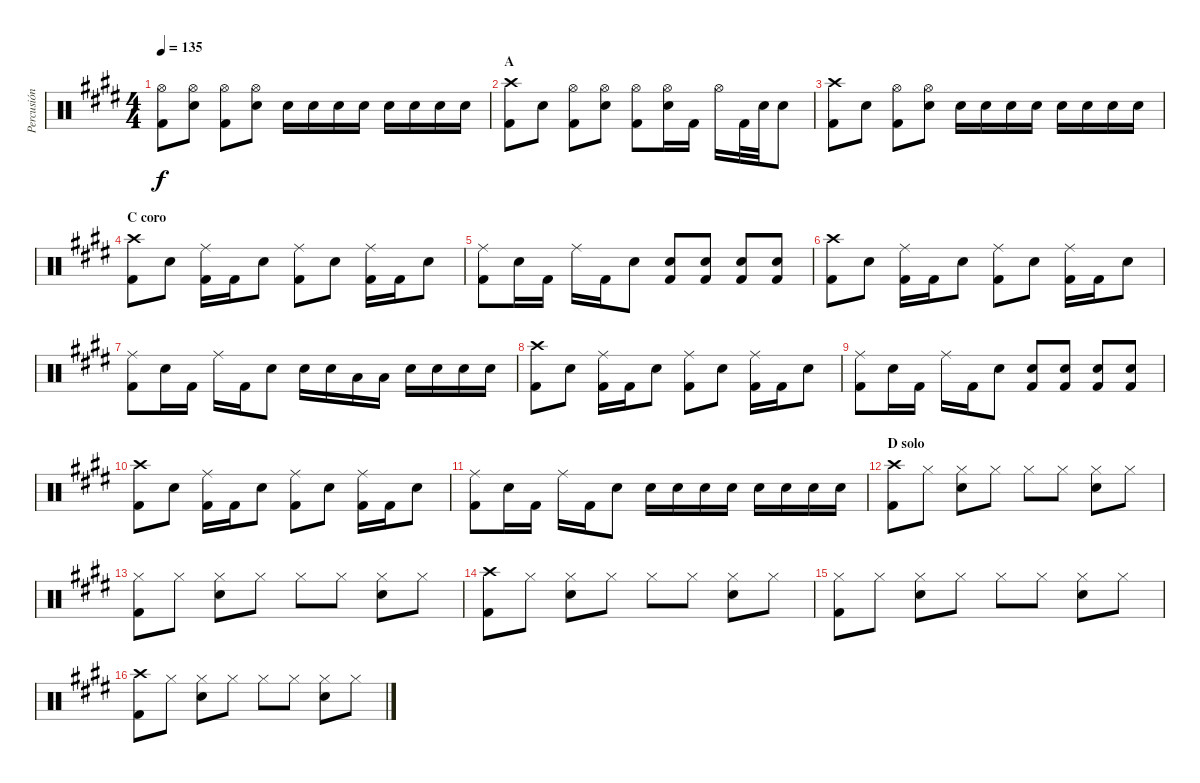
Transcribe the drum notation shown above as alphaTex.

\track ("Percusión" "Percusión") {instrument percussion}
\staff {score}
\articulation defaults
\ts (4 4)
\tempo 135
\clef neutral
\ks e
("Hi-Hat (open)" "Kick (hit) 2").8{dy f} ("Hi-Hat (open)" "Electric Snare (hit)").8 ("Hi-Hat (open)" "Kick (hit) 2").8 ("Hi-Hat (open)" "Electric Snare (hit)").8 "Electric Snare (hit)".16 "Electric Snare (hit)".16 "Electric Snare (hit)".16 "Electric Snare (hit)".16 "Electric Snare (hit)".16 "Electric Snare (hit)".16 "Electric Snare (hit)".16 "Electric Snare (hit)".16 |
\section ("" "A")
("Crash high (hit)" "Kick (hit) 2").8 "Electric Snare (hit)".8 ("Hi-Hat (open)" "Kick (hit) 2").8 ("Hi-Hat (open)" "Electric Snare (hit)").8 ("Hi-Hat (open)" "Kick (hit) 2").8 ("Hi-Hat (open)" "Electric Snare (hit)").16 "Kick (hit) 2".16 "Hi-Hat (open)".16 "Kick (hit) 2".32 "Electric Snare (hit)".32 "Electric Snare (hit)".8 |
("Crash high (hit)" "Kick (hit) 2").8 "Electric Snare (hit)".8 ("Hi-Hat (open)" "Kick (hit) 2").8 ("Hi-Hat (open)" "Electric Snare (hit)").8 "Electric Snare (hit)".16 "Electric Snare (hit)".16 "Electric Snare (hit)".16 "Electric Snare (hit)".16 "Electric Snare (hit)".16 "Electric Snare (hit)".16 "Electric Snare (hit)".16 "Electric Snare (hit)".16 |
\section ("" "C coro")
("Crash high (hit)" "Kick (hit) 2").8 "Electric Snare (hit)".8 ("Ride (middle)" "Kick (hit) 2").16 "Kick (hit) 2".16 "Electric Snare (hit)".8 ("Ride (middle)" "Kick (hit) 2").8 "Electric Snare (hit)".8 ("Ride (middle)" "Kick (hit) 2").16 "Kick (hit) 2".16 "Electric Snare (hit)".8 |
("Ride (middle)" "Kick (hit) 2").8 "Electric Snare (hit)".16 "Kick (hit) 2".16 "Ride (middle)".16 "Kick (hit) 2".16 "Electric Snare (hit)".8 ("Electric Snare (hit)" "Kick (hit) 2").8 ("Electric Snare (hit)" "Kick (hit) 2").8 ("Electric Snare (hit)" "Kick (hit) 2").8 ("Electric Snare (hit)" "Kick (hit) 2").8 |
("Crash high (hit)" "Kick (hit) 2").8 "Electric Snare (hit)".8 ("Ride (middle)" "Kick (hit) 2").16 "Kick (hit) 2".16 "Electric Snare (hit)".8 ("Ride (middle)" "Kick (hit) 2").8 "Electric Snare (hit)".8 ("Ride (middle)" "Kick (hit) 2").16 "Kick (hit) 2".16 "Electric Snare (hit)".8 |
("Ride (middle)" "Kick (hit) 2").8 "Electric Snare (hit)".16 "Kick (hit) 2".16 "Ride (middle)".16 "Kick (hit) 2".16 "Electric Snare (hit)".8 "Electric Snare (hit)".16 "Electric Snare (hit)".16 "Low Tom (hit)".16 "Low Tom (hit)".16 "Electric Snare (hit)".16 "Electric Snare (hit)".16 "Electric Snare (hit)".16 "Electric Snare (hit)".16 |
("Crash high (hit)" "Kick (hit) 2").8 "Electric Snare (hit)".8 ("Ride (middle)" "Kick (hit) 2").16 "Kick (hit) 2".16 "Electric Snare (hit)".8 ("Ride (middle)" "Kick (hit) 2").8 "Electric Snare (hit)".8 ("Ride (middle)" "Kick (hit) 2").16 "Kick (hit) 2".16 "Electric Snare (hit)".8 |
("Ride (middle)" "Kick (hit) 2").8 "Electric Snare (hit)".16 "Kick (hit) 2".16 "Ride (middle)".16 "Kick (hit) 2".16 "Electric Snare (hit)".8 ("Electric Snare (hit)" "Kick (hit) 2").8 ("Electric Snare (hit)" "Kick (hit) 2").8 ("Electric Snare (hit)" "Kick (hit) 2").8 ("Electric Snare (hit)" "Kick (hit) 2").8 |
("Crash high (hit)" "Kick (hit) 2").8 "Electric Snare (hit)".8 ("Ride (middle)" "Kick (hit) 2").16 "Kick (hit) 2".16 "Electric Snare (hit)".8 ("Ride (middle)" "Kick (hit) 2").8 "Electric Snare (hit)".8 ("Ride (middle)" "Kick (hit) 2").16 "Kick (hit) 2".16 "Electric Snare (hit)".8 |
("Ride (middle)" "Kick (hit) 2").8 "Electric Snare (hit)".16 "Kick (hit) 2".16 "Ride (middle)".16 "Kick (hit) 2".16 "Electric Snare (hit)".8 "Electric Snare (hit)".16 "Electric Snare (hit)".16 "Electric Snare (hit)".16 "Electric Snare (hit)".16 "Electric Snare (hit)".16 "Electric Snare (hit)".16 "Electric Snare (hit)".16 "Electric Snare (hit)".16 |
\section ("" "D solo")
("Crash high (hit)" "Kick (hit) 2").8 "Hi-Hat (closed)".8 ("Hi-Hat (closed)" "Electric Snare (hit)").8 "Hi-Hat (closed)".8 "Hi-Hat (closed)".8 "Hi-Hat (closed)".8 ("Hi-Hat (closed)" "Electric Snare (hit)").8 "Hi-Hat (closed)".8 |
("Hi-Hat (closed)" "Kick (hit) 2").8 "Hi-Hat (closed)".8 ("Hi-Hat (closed)" "Electric Snare (hit)").8 "Hi-Hat (closed)".8 "Hi-Hat (closed)".8 "Hi-Hat (closed)".8 ("Hi-Hat (closed)" "Electric Snare (hit)").8 "Hi-Hat (closed)".8 |
("Crash high (hit)" "Kick (hit) 2").8 "Hi-Hat (closed)".8 ("Hi-Hat (closed)" "Electric Snare (hit)").8 "Hi-Hat (closed)".8 "Hi-Hat (closed)".8 "Hi-Hat (closed)".8 ("Hi-Hat (closed)" "Electric Snare (hit)").8 "Hi-Hat (closed)".8 |
("Hi-Hat (closed)" "Kick (hit) 2").8 "Hi-Hat (closed)".8 ("Hi-Hat (closed)" "Electric Snare (hit)").8 "Hi-Hat (closed)".8 "Hi-Hat (closed)".8 "Hi-Hat (closed)".8 ("Hi-Hat (closed)" "Electric Snare (hit)").8 "Hi-Hat (closed)".8 |
("Crash high (hit)" "Kick (hit) 2").8 "Hi-Hat (closed)".8 ("Hi-Hat (closed)" "Electric Snare (hit)").8 "Hi-Hat (closed)".8 "Hi-Hat (closed)".8 "Hi-Hat (closed)".8 ("Hi-Hat (closed)" "Electric Snare (hit)").8 "Hi-Hat (closed)".8
